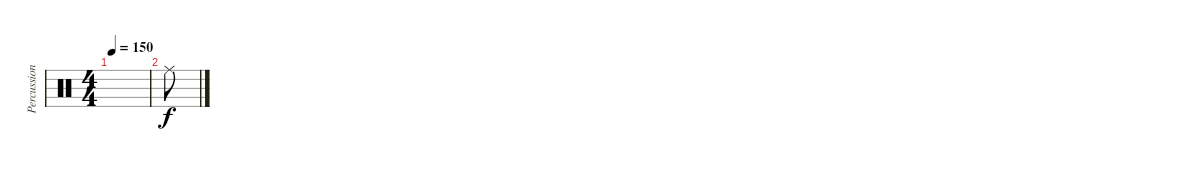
\track ("Percussion" "Percussion") {instrument percussion}
\staff {score}
\articulation defaults
\ts (4 4)
\tempo 150
\clef neutral
\ks c
|
"Ride (middle)".8
